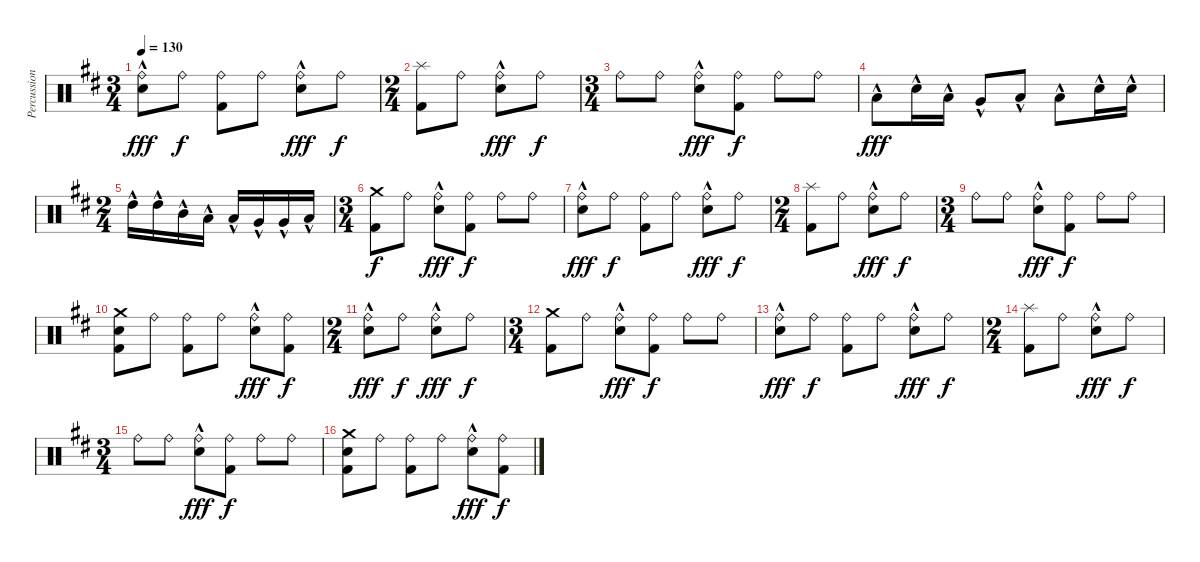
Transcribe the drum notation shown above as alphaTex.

\track ("Percussion" "Percussion") {instrument percussion bank 110}
\staff {score}
\articulation defaults
\ts (3 4)
\tempo 130
\clef neutral
\ks d
("Ride (bell)" "Electric Snare (hit)"{hac}).8{dy fff} "Ride (bell)".8{dy f} ("Ride (bell)" "Kick (hit) 2").8 "Ride (bell)".8 ("Ride (bell)" "Electric Snare (hit)"{hac}).8{dy fff} "Ride (bell)".8{dy f} |
\ts (2 4)
("Splash (hit)" "Kick (hit) 2").8 "Ride (bell)".8 ("Ride (bell)" "Electric Snare (hit)"{hac}).8{dy fff} "Ride (bell)".8{dy f} |
\ts (3 4)
"Ride (bell)".8 "Ride (bell)".8 ("Ride (bell)" "Electric Snare (hit)"{hac}).8{dy fff} ("Ride (bell)" "Kick (hit) 2").8{dy f} "Ride (bell)".8 "Ride (bell)".8 |
"Low Floor Tom (hit)"{hac}.8{dy fff} "Electric Snare (hit)"{hac}.16 "Low Tom (hit)"{hac}.16 "Very Low Tom (hit)"{hac}.8 "Low Floor Tom (hit)"{hac}.8 "Low Floor Tom (hit)"{hac}.8 "Electric Snare (hit)"{hac}.16 "Electric Snare (hit)"{hac}.16 |
\ts (2 4)
"High Tom (hit)"{hac}.16 "High Tom (hit)"{hac}.16 "Mid Tom (hit)"{hac}.16 "Low Tom (hit)"{hac}.16 "Low Tom (hit)"{hac}.16 "Very Low Tom (hit)"{hac}.16 "Very Low Tom (hit)"{hac}.16 "Low Floor Tom (hit)"{hac}.16 |
\ts (3 4)
("Crash medium (hit)" "Kick (hit) 2").8{dy f} "Ride (bell)".8 ("Ride (bell)" "Electric Snare (hit)"{hac}).8{dy fff} ("Ride (bell)" "Kick (hit) 2").8{dy f} "Ride (bell)".8 "Ride (bell)".8 |
("Ride (bell)" "Electric Snare (hit)"{hac}).8{dy fff} "Ride (bell)".8{dy f} ("Ride (bell)" "Kick (hit) 2").8 "Ride (bell)".8 ("Ride (bell)" "Electric Snare (hit)"{hac}).8{dy fff} "Ride (bell)".8{dy f} |
\ts (2 4)
("Splash (hit)" "Kick (hit) 2").8 "Ride (bell)".8 ("Ride (bell)" "Electric Snare (hit)"{hac}).8{dy fff} "Ride (bell)".8{dy f} |
\ts (3 4)
"Ride (bell)".8 "Ride (bell)".8 ("Ride (bell)" "Electric Snare (hit)"{hac}).8{dy fff} ("Ride (bell)" "Kick (hit) 2").8{dy f} "Ride (bell)".8 "Ride (bell)".8 |
("Crash medium (hit)" "Electric Snare (hit)" "Kick (hit) 2").8 "Ride (bell)".8 ("Ride (bell)" "Kick (hit) 2").8 "Ride (bell)".8 ("Ride (bell)" "Electric Snare (hit)"{hac}).8{dy fff} ("Ride (bell)" "Kick (hit) 2").8{dy f} |
\ts (2 4)
("Ride (bell)" "Electric Snare (hit)"{hac}).8{dy fff} "Ride (bell)".8{dy f} ("Ride (bell)" "Electric Snare (hit)"{hac}).8{dy fff} "Ride (bell)".8{dy f} |
\ts (3 4)
("Crash medium (hit)" "Kick (hit) 2").8 "Ride (bell)".8 ("Ride (bell)" "Electric Snare (hit)"{hac}).8{dy fff} ("Ride (bell)" "Kick (hit) 2").8{dy f} "Ride (bell)".8 "Ride (bell)".8 |
("Ride (bell)" "Electric Snare (hit)"{hac}).8{dy fff} "Ride (bell)".8{dy f} ("Ride (bell)" "Kick (hit) 2").8 "Ride (bell)".8 ("Ride (bell)" "Electric Snare (hit)"{hac}).8{dy fff} "Ride (bell)".8{dy f} |
\ts (2 4)
("Splash (hit)" "Kick (hit) 2").8 "Ride (bell)".8 ("Ride (bell)" "Electric Snare (hit)"{hac}).8{dy fff} "Ride (bell)".8{dy f} |
\ts (3 4)
"Ride (bell)".8 "Ride (bell)".8 ("Ride (bell)" "Electric Snare (hit)"{hac}).8{dy fff} ("Ride (bell)" "Kick (hit) 2").8{dy f} "Ride (bell)".8 "Ride (bell)".8 |
("Crash medium (hit)" "Electric Snare (hit)" "Kick (hit) 2").8 "Ride (bell)".8 ("Ride (bell)" "Kick (hit) 2").8 "Ride (bell)".8 ("Ride (bell)" "Electric Snare (hit)"{hac}).8{dy fff} ("Ride (bell)" "Kick (hit) 2").8{dy f}
